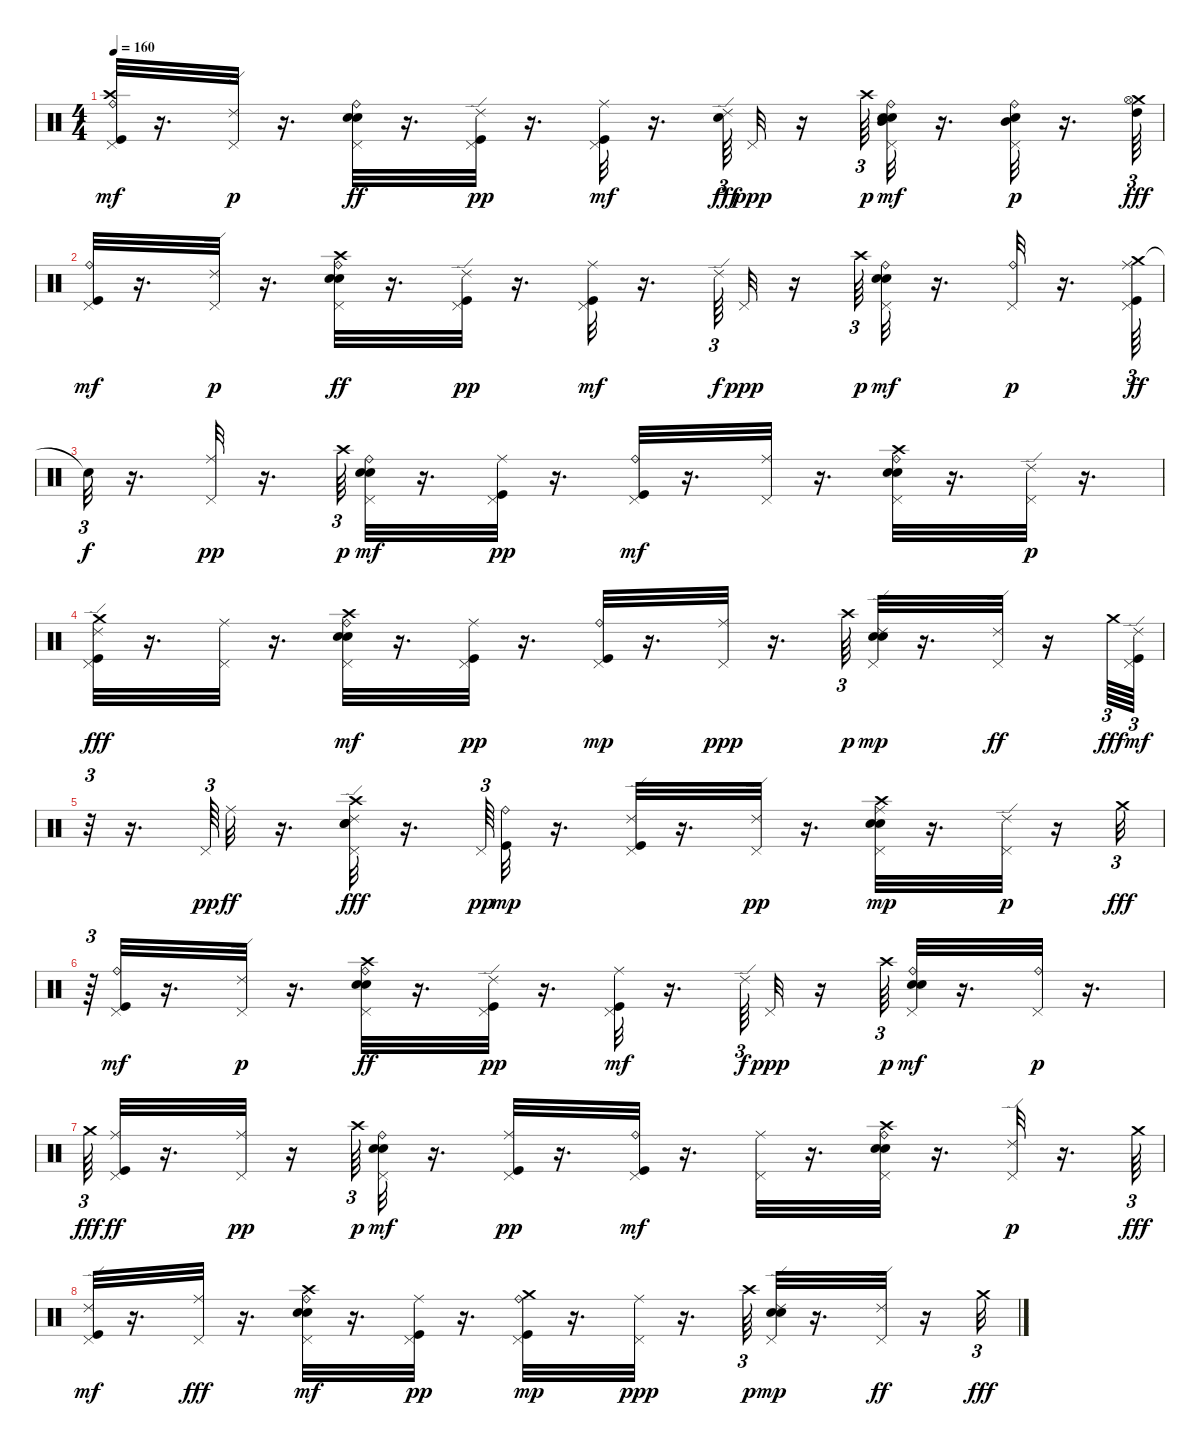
\track "" {instrument percussion}
\staff {score}
\articulation defaults
\ts (4 4)
\tempo 160
\clef neutral
\ks c
("Kick (hit)" "Crash high (hit)" "Ride (bell)" "Pedal Hi-Hat (hit)").32{dy mf} r.16{d} ("Ride (edge) 2" "Pedal Hi-Hat (hit)").32{dy p} r.16{d} ("Electric Snare (hit)" "Snare (hit) 2" "Ride (bell)" "Pedal Hi-Hat (hit)").32{dy ff} r.16{d} ("Kick (hit)" "Ride (edge) 2" "Pedal Hi-Hat (hit)").32{dy pp} r.16{d} ("Kick (hit)" "Ride (middle)" "Pedal Hi-Hat (hit)").32{dy mf} r.16{d} ("Electric Snare (hit)" "Ride (edge) 2").64{tu (3 2) dy fff} "Pedal Hi-Hat (hit)".32{dy ppp} r.16 "Crash high (hit)".64{tu (3 2) dy p} ("Mid Tom (hit)" "Electric Snare (hit)" "Snare (hit) 2" "Ride (bell)" "Pedal Hi-Hat (hit)").32{dy mf} r.16{d} ("Mid Tom (hit)" "Electric Snare (hit)" "Ride (bell)" "Pedal Hi-Hat (hit)").32{dy p} r.16{d} ("Crash medium (hit)" "Hi-Hat (open)" "High Tom (hit)").64{tu (3 2) dy fff} |
("Kick (hit)" "Ride (bell)" "Pedal Hi-Hat (hit)").32{dy mf} r.16{d} ("Ride (edge) 2" "Pedal Hi-Hat (hit)").32{dy p} r.16{d} ("Electric Snare (hit)" "Crash high (hit)" "Snare (hit) 2" "Ride (bell)" "Pedal Hi-Hat (hit)").32{dy ff} r.16{d} ("Kick (hit)" "Ride (edge) 2" "Pedal Hi-Hat (hit)").32{dy pp} r.16{d} ("Kick (hit)" "Ride (middle)" "Pedal Hi-Hat (hit)").32{dy mf} r.16{d} "Ride (edge) 2".64{tu (3 2) dy f} "Pedal Hi-Hat (hit)".32{dy ppp} r.16 "Crash high (hit)".64{tu (3 2) dy p} ("Electric Snare (hit)" "Snare (hit) 2" "Ride (bell)" "Pedal Hi-Hat (hit)").32{dy mf} r.16{d} ("Ride (bell)" "Pedal Hi-Hat (hit)").32{dy p} r.16{d} ("Crash medium (hit)" "Kick (hit)" "Ride (middle)" "Pedal Hi-Hat (hit)").64{tu (3 2) dy ff} |
"Snare (hit)"{t}.32{tu (3 2) dy f} r.16{d} ("Ride (middle)" "Pedal Hi-Hat (hit)").32{dy pp} r.16{d} "Crash high (hit)".64{tu (3 2) dy p} ("Electric Snare (hit)" "Snare (hit) 2" "Ride (bell)" "Pedal Hi-Hat (hit)").32{dy mf} r.16{d} ("Kick (hit)" "Ride (middle)" "Pedal Hi-Hat (hit)").32{dy pp} r.16{d} ("Kick (hit)" "Ride (bell)" "Pedal Hi-Hat (hit)").32{dy mf} r.16{d} ("Pedal Hi-Hat (hit)" "Ride (middle)").32 r.16{d} ("Electric Snare (hit)" "Crash high (hit)" "Snare (hit) 2" "Ride (bell)" "Pedal Hi-Hat (hit)").32 r.16{d} ("Ride (edge) 2" "Pedal Hi-Hat (hit)").32{dy p} r.16{d} |
("Kick (hit)" "Ride (edge) 2" "Pedal Hi-Hat (hit)" "Crash medium (hit)").32{dy fff} r.16{d} ("Pedal Hi-Hat (hit)" "Ride (middle)").32 r.16{d} ("Electric Snare (hit)" "Crash high (hit)" "Snare (hit) 2" "Ride (bell)" "Pedal Hi-Hat (hit)").32{dy mf} r.16{d} ("Kick (hit)" "Ride (middle)" "Pedal Hi-Hat (hit)").32{dy pp} r.16{d} ("Kick (hit)" "Ride (bell)" "Pedal Hi-Hat (hit)").32{dy mp} r.16{d} ("Ride (middle)" "Pedal Hi-Hat (hit)").32{dy ppp} r.16{d} "Crash high (hit)".64{tu (3 2) dy p} ("Electric Snare (hit)" "Snare (hit) 2" "Ride (edge) 2" "Pedal Hi-Hat (hit)").32{dy mp} r.16{d} ("Pedal Hi-Hat (hit)" "Ride (edge) 2").32{dy ff} r.16 "Crash medium (hit)".64{tu (3 2) dy fff} ("Kick (hit)" "Ride (edge) 2" "Pedal Hi-Hat (hit)").64{tu (3 2) dy mf} |
r.32{tu (3 2)} r.16{d} "Pedal Hi-Hat (hit)".64{tu (3 2) dy pp} "Ride (middle)".32{dy ff} r.16{d} ("Pedal Hi-Hat (hit)" "Electric Snare (hit)" "Crash high (hit)" "Snare (hit) 2" "Ride (edge) 2").32{dy fff} r.16{d} "Pedal Hi-Hat (hit)".64{tu (3 2) dy pp} ("Kick (hit)" "Ride (bell)").32{dy mp} r.16{d} ("Kick (hit)" "Ride (edge) 2" "Pedal Hi-Hat (hit)").32 r.16{d} ("Ride (edge) 2" "Pedal Hi-Hat (hit)").32{dy pp} r.16{d} ("Electric Snare (hit)" "Snare (hit) 2" "Ride (middle)" "Pedal Hi-Hat (hit)" "Crash high (hit)").32{dy mp} r.16{d} ("Ride (edge) 2" "Pedal Hi-Hat (hit)").32{dy p} r.16 "Crash medium (hit)".32{tu (3 2) dy fff} |
r.64{tu (3 2)} ("Kick (hit)" "Ride (bell)" "Pedal Hi-Hat (hit)").32{dy mf} r.16{d} ("Ride (edge) 2" "Pedal Hi-Hat (hit)").32{dy p} r.16{d} ("Electric Snare (hit)" "Crash high (hit)" "Snare (hit) 2" "Ride (bell)" "Pedal Hi-Hat (hit)").32{dy ff} r.16{d} ("Kick (hit)" "Ride (edge) 2" "Pedal Hi-Hat (hit)").32{dy pp} r.16{d} ("Kick (hit)" "Ride (middle)" "Pedal Hi-Hat (hit)").32{dy mf} r.16{d} "Ride (edge) 2".64{tu (3 2) dy f} "Pedal Hi-Hat (hit)".32{dy ppp} r.16 "Crash high (hit)".64{tu (3 2) dy p} ("Electric Snare (hit)" "Snare (hit) 2" "Ride (bell)" "Pedal Hi-Hat (hit)").32{dy mf} r.16{d} ("Ride (bell)" "Pedal Hi-Hat (hit)").32{dy p} r.16{d} |
"Crash medium (hit)".64{tu (3 2) dy fff} ("Kick (hit)" "Ride (middle)" "Pedal Hi-Hat (hit)").32{dy ff} r.16{d} ("Ride (middle)" "Pedal Hi-Hat (hit)").32{dy pp} r.16 "Crash high (hit)".64{tu (3 2) dy p} ("Electric Snare (hit)" "Snare (hit) 2" "Ride (bell)" "Pedal Hi-Hat (hit)").32{dy mf} r.16{d} ("Kick (hit)" "Ride (middle)" "Pedal Hi-Hat (hit)").32{dy pp} r.16{d} ("Kick (hit)" "Ride (bell)" "Pedal Hi-Hat (hit)").32{dy mf} r.16{d} ("Pedal Hi-Hat (hit)" "Ride (middle)").32 r.16{d} ("Electric Snare (hit)" "Crash high (hit)" "Snare (hit) 2" "Ride (bell)" "Pedal Hi-Hat (hit)").32 r.16{d} ("Ride (edge) 2" "Pedal Hi-Hat (hit)").32{dy p} r.16{d} "Crash medium (hit)".64{tu (3 2) dy fff} |
("Kick (hit)" "Ride (edge) 2" "Pedal Hi-Hat (hit)").32{dy mf} r.16{d} ("Pedal Hi-Hat (hit)" "Ride (middle)").32{dy fff} r.16{d} ("Electric Snare (hit)" "Crash high (hit)" "Snare (hit) 2" "Ride (bell)" "Pedal Hi-Hat (hit)").32{dy mf} r.16{d} ("Kick (hit)" "Ride (middle)" "Pedal Hi-Hat (hit)").32{dy pp} r.16{d} ("Crash medium (hit)" "Kick (hit)" "Ride (bell)" "Pedal Hi-Hat (hit)").32{dy mp} r.16{d} ("Ride (middle)" "Pedal Hi-Hat (hit)").32{dy ppp} r.16{d} "Crash high (hit)".64{tu (3 2) dy p} ("Electric Snare (hit)" "Snare (hit) 2" "Ride (edge) 2" "Pedal Hi-Hat (hit)").32{dy mp} r.16{d} ("Pedal Hi-Hat (hit)" "Ride (edge) 2").32{dy ff} r.16 "Crash medium (hit)".32{tu (3 2) dy fff}
